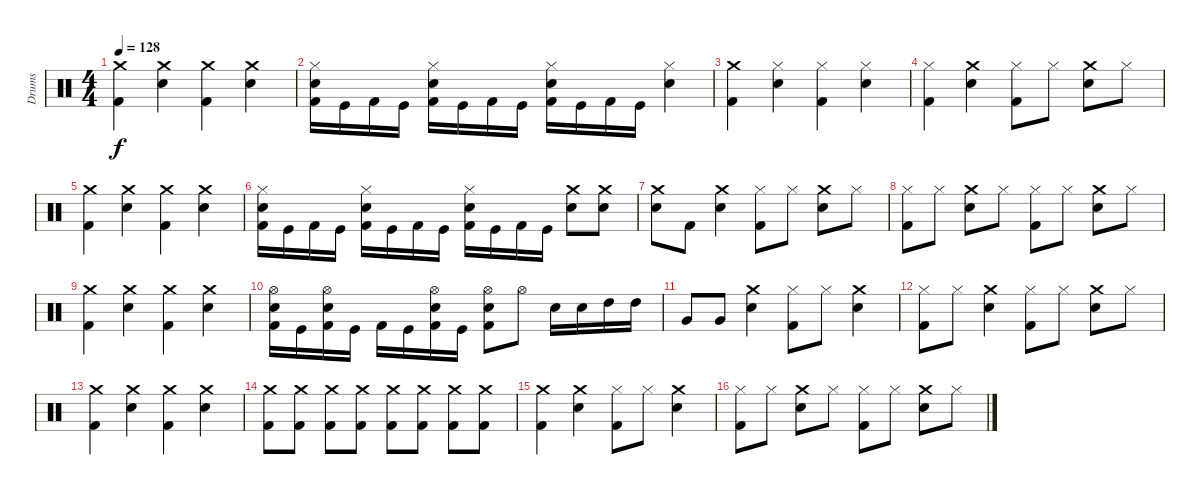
\track ("Drums" "Drums") {instrument percussion}
\staff {score}
\articulation defaults
\ts (4 4)
\tempo 128
\clef neutral
\ks c
("Kick (hit) 2" "Crash medium (hit)").4{dy f} ("Snare (hit) 2" "Crash medium (hit)").4 ("Kick (hit) 2" "Crash medium (hit)").4 ("Snare (hit) 2" "Crash medium (hit)").4 |
("Kick (hit) 2" "Snare (hit) 2" "Hi-Hat (closed)").16 "Kick (hit)".16 "Kick (hit) 2".16 "Kick (hit)".16 ("Kick (hit) 2" "Snare (hit) 2" "Hi-Hat (closed)").16 "Kick (hit)".16 "Kick (hit) 2".16 "Kick (hit)".16 ("Kick (hit) 2" "Snare (hit) 2" "Hi-Hat (closed)").16 "Kick (hit)".16 "Kick (hit) 2".16 "Kick (hit)".16 ("Snare (hit) 2" "Hi-Hat (closed)").4 |
("Kick (hit) 2" "Crash medium (hit)").4 ("Hi-Hat (closed)" "Snare (hit) 2").4 ("Hi-Hat (closed)" "Kick (hit) 2").4 ("Snare (hit) 2" "Hi-Hat (closed)").4 |
("Kick (hit) 2" "Hi-Hat (closed)").4 ("Crash medium (hit)" "Snare (hit) 2").4 ("Hi-Hat (closed)" "Kick (hit) 2").8 "Hi-Hat (closed)".8 ("Crash medium (hit)" "Snare (hit) 2").8 "Hi-Hat (closed)".8 |
("Kick (hit) 2" "Crash medium (hit)").4 ("Snare (hit) 2" "Crash medium (hit)").4 ("Kick (hit) 2" "Crash medium (hit)").4 ("Snare (hit) 2" "Crash medium (hit)").4 |
("Kick (hit) 2" "Snare (hit) 2" "Hi-Hat (closed)").16 "Kick (hit)".16 "Kick (hit) 2".16 "Kick (hit)".16 ("Kick (hit) 2" "Snare (hit) 2" "Hi-Hat (closed)").16 "Kick (hit)".16 "Kick (hit) 2".16 "Kick (hit)".16 ("Kick (hit) 2" "Snare (hit) 2" "Hi-Hat (closed)").16 "Kick (hit)".16 "Kick (hit) 2".16 "Kick (hit)".16 ("Snare (hit) 2" "Crash medium (hit)").8 ("Snare (hit) 2" "Crash medium (hit)").8 |
("Crash medium (hit)" "Snare (hit) 2").8 "Kick (hit) 2".8 ("Crash medium (hit)" "Snare (hit) 2").4 ("Kick (hit) 2" "Hi-Hat (closed)").8 "Hi-Hat (closed)".8 ("Snare (hit) 2" "Crash medium (hit)").8 "Hi-Hat (closed)".8 |
("Hi-Hat (closed)" "Kick (hit) 2").8 "Hi-Hat (closed)".8 ("Crash medium (hit)" "Snare (hit) 2").8 "Hi-Hat (closed)".8 ("Hi-Hat (closed)" "Kick (hit) 2").8 "Hi-Hat (closed)".8 ("Crash medium (hit)" "Snare (hit) 2").8 "Hi-Hat (closed)".8 |
("Crash medium (hit)" "Kick (hit) 2").4 ("Crash medium (hit)" "Snare (hit) 2").4 ("Crash medium (hit)" "Kick (hit) 2").4 ("Snare (hit) 2" "Crash medium (hit)").4 |
("Hi-Hat (open)" "Snare (hit) 2" "Kick (hit) 2").16 "Kick (hit)".16 ("Hi-Hat (open)" "Snare (hit) 2" "Kick (hit) 2").16 "Kick (hit)".16 "Kick (hit) 2".16 "Kick (hit)".16 ("Hi-Hat (open)" "Snare (hit) 2" "Kick (hit) 2").16 "Kick (hit)".16 ("Hi-Hat (open)" "Snare (hit) 2" "Kick (hit) 2").8 "Hi-Hat (open)".8 "Snare (hit) 2".16 "Snare (hit) 2".16 "High Tom (hit)".16 "High Tom (hit)".16 |
"Very Low Tom (hit)".8 "Very Low Tom (hit)".8 ("Crash medium (hit)" "Snare (hit) 2").4 ("Kick (hit) 2" "Hi-Hat (closed)").8 "Hi-Hat (closed)".8 ("Crash medium (hit)" "Snare (hit) 2").4 |
("Hi-Hat (closed)" "Kick (hit) 2").8 "Hi-Hat (closed)".8 ("Crash medium (hit)" "Snare (hit) 2").4 ("Hi-Hat (closed)" "Kick (hit) 2").8 "Hi-Hat (closed)".8 ("Crash medium (hit)" "Snare (hit) 2").8 "Hi-Hat (closed)".8 |
("Crash medium (hit)" "Kick (hit) 2").4 ("Crash medium (hit)" "Snare (hit) 2").4 ("Crash medium (hit)" "Kick (hit) 2").4 ("Crash medium (hit)" "Snare (hit) 2").4 |
("Kick (hit) 2" "Crash medium (hit)").8 ("Kick (hit) 2" "Crash medium (hit)").8 ("Kick (hit) 2" "Crash medium (hit)").8 ("Kick (hit) 2" "Crash medium (hit)").8 ("Kick (hit) 2" "Crash medium (hit)").8 ("Kick (hit) 2" "Crash medium (hit)").8 ("Kick (hit) 2" "Crash medium (hit)").8 ("Kick (hit) 2" "Crash medium (hit)").8 |
("Kick (hit) 2" "Crash medium (hit)").4 ("Snare (hit) 2" "Crash medium (hit)").4 ("Hi-Hat (closed)" "Kick (hit) 2").8 "Hi-Hat (closed)".8 ("Snare (hit) 2" "Crash medium (hit)").4 |
("Kick (hit) 2" "Hi-Hat (closed)").8 "Hi-Hat (closed)".8 ("Crash medium (hit)" "Snare (hit) 2").8 "Hi-Hat (closed)".8 ("Kick (hit) 2" "Hi-Hat (closed)").8 "Hi-Hat (closed)".8 ("Crash medium (hit)" "Snare (hit) 2").8 "Hi-Hat (closed)".8
